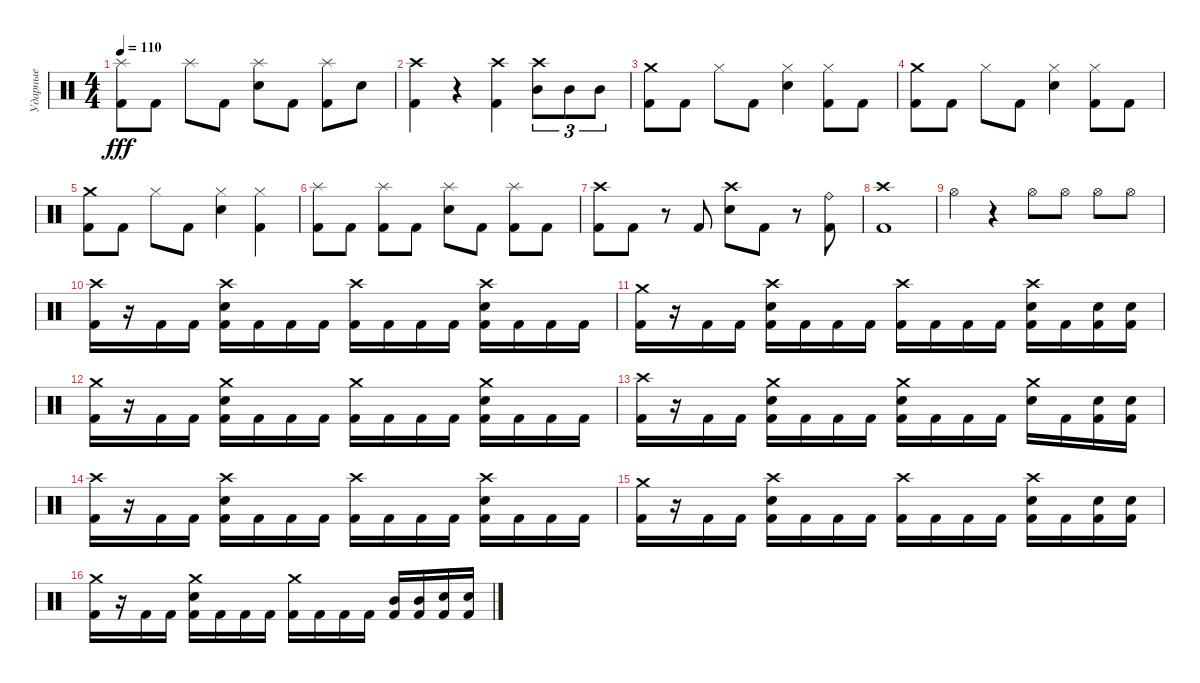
\track ("Ударные" "Ударные") {mute instrument percussion}
\staff {score}
\articulation defaults
\ts (4 4)
\tempo 110
\clef neutral
\ks c
("Splash (hit)" "Kick (hit) 2").8{dy fff} "Kick (hit) 2".8 "Splash (hit)".8 "Kick (hit) 2".8 ("Splash (hit)" "Snare (hit) 2").8 "Kick (hit) 2".8 ("Splash (hit)" "Kick (hit) 2").8 "Snare (hit) 2".8 |
("Crash high (hit)" "Kick (hit) 2").4 r.4 ("Crash high (hit)" "Kick (hit) 2").4 ("Crash high (hit)" "Mid Tom (hit)").8{tu (3 2)} "Mid Tom (hit)".8{tu (3 2)} "Mid Tom (hit)".8{tu (3 2)} |
("Crash medium (hit)" "Kick (hit) 2").8 "Kick (hit) 2".8 "Hi-Hat (closed)".8 "Kick (hit) 2".8 ("Hi-Hat (closed)" "Snare (hit) 2").4 ("Hi-Hat (closed)" "Kick (hit) 2").8 "Kick (hit) 2".8 |
("Crash medium (hit)" "Kick (hit) 2").8 "Kick (hit) 2".8 "Hi-Hat (closed)".8 "Kick (hit) 2".8 ("Hi-Hat (closed)" "Snare (hit) 2").4 ("Hi-Hat (closed)" "Kick (hit) 2").8 "Kick (hit) 2".8 |
("Crash medium (hit)" "Kick (hit) 2").8 "Kick (hit) 2".8 "Hi-Hat (closed)".8 "Kick (hit) 2".8 ("Hi-Hat (closed)" "Snare (hit) 2").4 ("Hi-Hat (closed)" "Kick (hit) 2").4 |
("Splash (hit)" "Kick (hit) 2").8 "Kick (hit) 2".8 ("Splash (hit)" "Kick (hit) 2").8 "Kick (hit) 2".8 ("Splash (hit)" "Snare (hit) 2").8 "Kick (hit) 2".8 ("Splash (hit)" "Kick (hit) 2").8 "Kick (hit) 2".8 |
("Crash high (hit)" "Kick (hit) 2").8 "Kick (hit) 2".8 r.8 "Kick (hit) 2".8 ("Crash high (hit)" "Snare (hit) 2").8 "Kick (hit) 2".8 r.8 ("Ride (bell)" "Kick (hit) 2").8 |
("Crash high (hit)" "Kick (hit) 2").1 |
"Hi-Hat (open)".4 r.4 "Hi-Hat (open)".8 "Hi-Hat (open)".8 "Hi-Hat (open)".8 "Hi-Hat (open)".8 |
("Crash high (hit)" "Kick (hit) 2").16 r.16 "Kick (hit) 2".16 "Kick (hit) 2".16 ("Crash high (hit)" "Snare (hit) 2" "Kick (hit) 2").16 "Kick (hit) 2".16 "Kick (hit) 2".16 "Kick (hit) 2".16 ("Crash high (hit)" "Kick (hit) 2").16 "Kick (hit) 2".16 "Kick (hit) 2".16 "Kick (hit) 2".16 ("Crash high (hit)" "Snare (hit) 2" "Kick (hit) 2").16 "Kick (hit) 2".16 "Kick (hit) 2".16 "Kick (hit) 2".16 |
("Crash medium (hit)" "Kick (hit) 2").16 r.16 "Kick (hit) 2".16 "Kick (hit) 2".16 ("Crash high (hit)" "Snare (hit) 2" "Kick (hit) 2").16 "Kick (hit) 2".16 "Kick (hit) 2".16 "Kick (hit) 2".16 ("Crash high (hit)" "Kick (hit) 2").16 "Kick (hit) 2".16 "Kick (hit) 2".16 "Kick (hit) 2".16 ("Crash high (hit)" "Snare (hit) 2" "Kick (hit) 2").16 "Kick (hit) 2".16 ("Snare (hit) 2" "Kick (hit) 2").16 ("Snare (hit) 2" "Kick (hit) 2").16 |
("Crash medium (hit)" "Kick (hit) 2").16 r.16 "Kick (hit) 2".16 "Kick (hit) 2".16 ("Crash medium (hit)" "Snare (hit) 2" "Kick (hit) 2").16 "Kick (hit) 2".16 "Kick (hit) 2".16 "Kick (hit) 2".16 ("Crash medium (hit)" "Kick (hit) 2").16 "Kick (hit) 2".16 "Kick (hit) 2".16 "Kick (hit) 2".16 ("Crash medium (hit)" "Snare (hit) 2" "Kick (hit) 2").16 "Kick (hit) 2".16 "Kick (hit) 2".16 "Kick (hit) 2".16 |
("Crash high (hit)" "Kick (hit) 2").16 r.16 "Kick (hit) 2".16 "Kick (hit) 2".16 ("Crash medium (hit)" "Snare (hit) 2" "Kick (hit) 2").16 "Kick (hit) 2".16 "Kick (hit) 2".16 "Kick (hit) 2".16 ("Crash medium (hit)" "Snare (hit) 2" "Kick (hit) 2").16 "Kick (hit) 2".16 "Kick (hit) 2".16 "Kick (hit) 2".16 ("Crash medium (hit)" "Snare (hit) 2").16 "Kick (hit) 2".16 ("Snare (hit) 2" "Kick (hit) 2").16 ("Snare (hit) 2" "Kick (hit) 2").16 |
("Crash high (hit)" "Kick (hit) 2").16 r.16 "Kick (hit) 2".16 "Kick (hit) 2".16 ("Crash high (hit)" "Snare (hit) 2" "Kick (hit) 2").16 "Kick (hit) 2".16 "Kick (hit) 2".16 "Kick (hit) 2".16 ("Crash high (hit)" "Kick (hit) 2").16 "Kick (hit) 2".16 "Kick (hit) 2".16 "Kick (hit) 2".16 ("Crash high (hit)" "Snare (hit) 2" "Kick (hit) 2").16 "Kick (hit) 2".16 "Kick (hit) 2".16 "Kick (hit) 2".16 |
("Crash medium (hit)" "Kick (hit) 2").16 r.16 "Kick (hit) 2".16 "Kick (hit) 2".16 ("Crash high (hit)" "Snare (hit) 2" "Kick (hit) 2").16 "Kick (hit) 2".16 "Kick (hit) 2".16 "Kick (hit) 2".16 ("Crash high (hit)" "Kick (hit) 2").16 "Kick (hit) 2".16 "Kick (hit) 2".16 "Kick (hit) 2".16 ("Crash high (hit)" "Snare (hit) 2" "Kick (hit) 2").16 "Kick (hit) 2".16 ("Snare (hit) 2" "Kick (hit) 2").16 ("Snare (hit) 2" "Kick (hit) 2").16 |
("Crash medium (hit)" "Kick (hit) 2").16 r.16 "Kick (hit) 2".16 "Kick (hit) 2".16 ("Crash medium (hit)" "Snare (hit) 2" "Kick (hit) 2").16 "Kick (hit) 2".16 "Kick (hit) 2".16 "Kick (hit) 2".16 ("Crash medium (hit)" "Kick (hit) 2").16 "Kick (hit) 2".16 "Kick (hit) 2".16 "Kick (hit) 2".16 ("Mid Tom (hit)" "Kick (hit) 2").16 ("Mid Tom (hit)" "Kick (hit) 2").16 ("Snare (hit) 2" "Kick (hit) 2").16 ("Snare (hit) 2" "Kick (hit) 2").16
